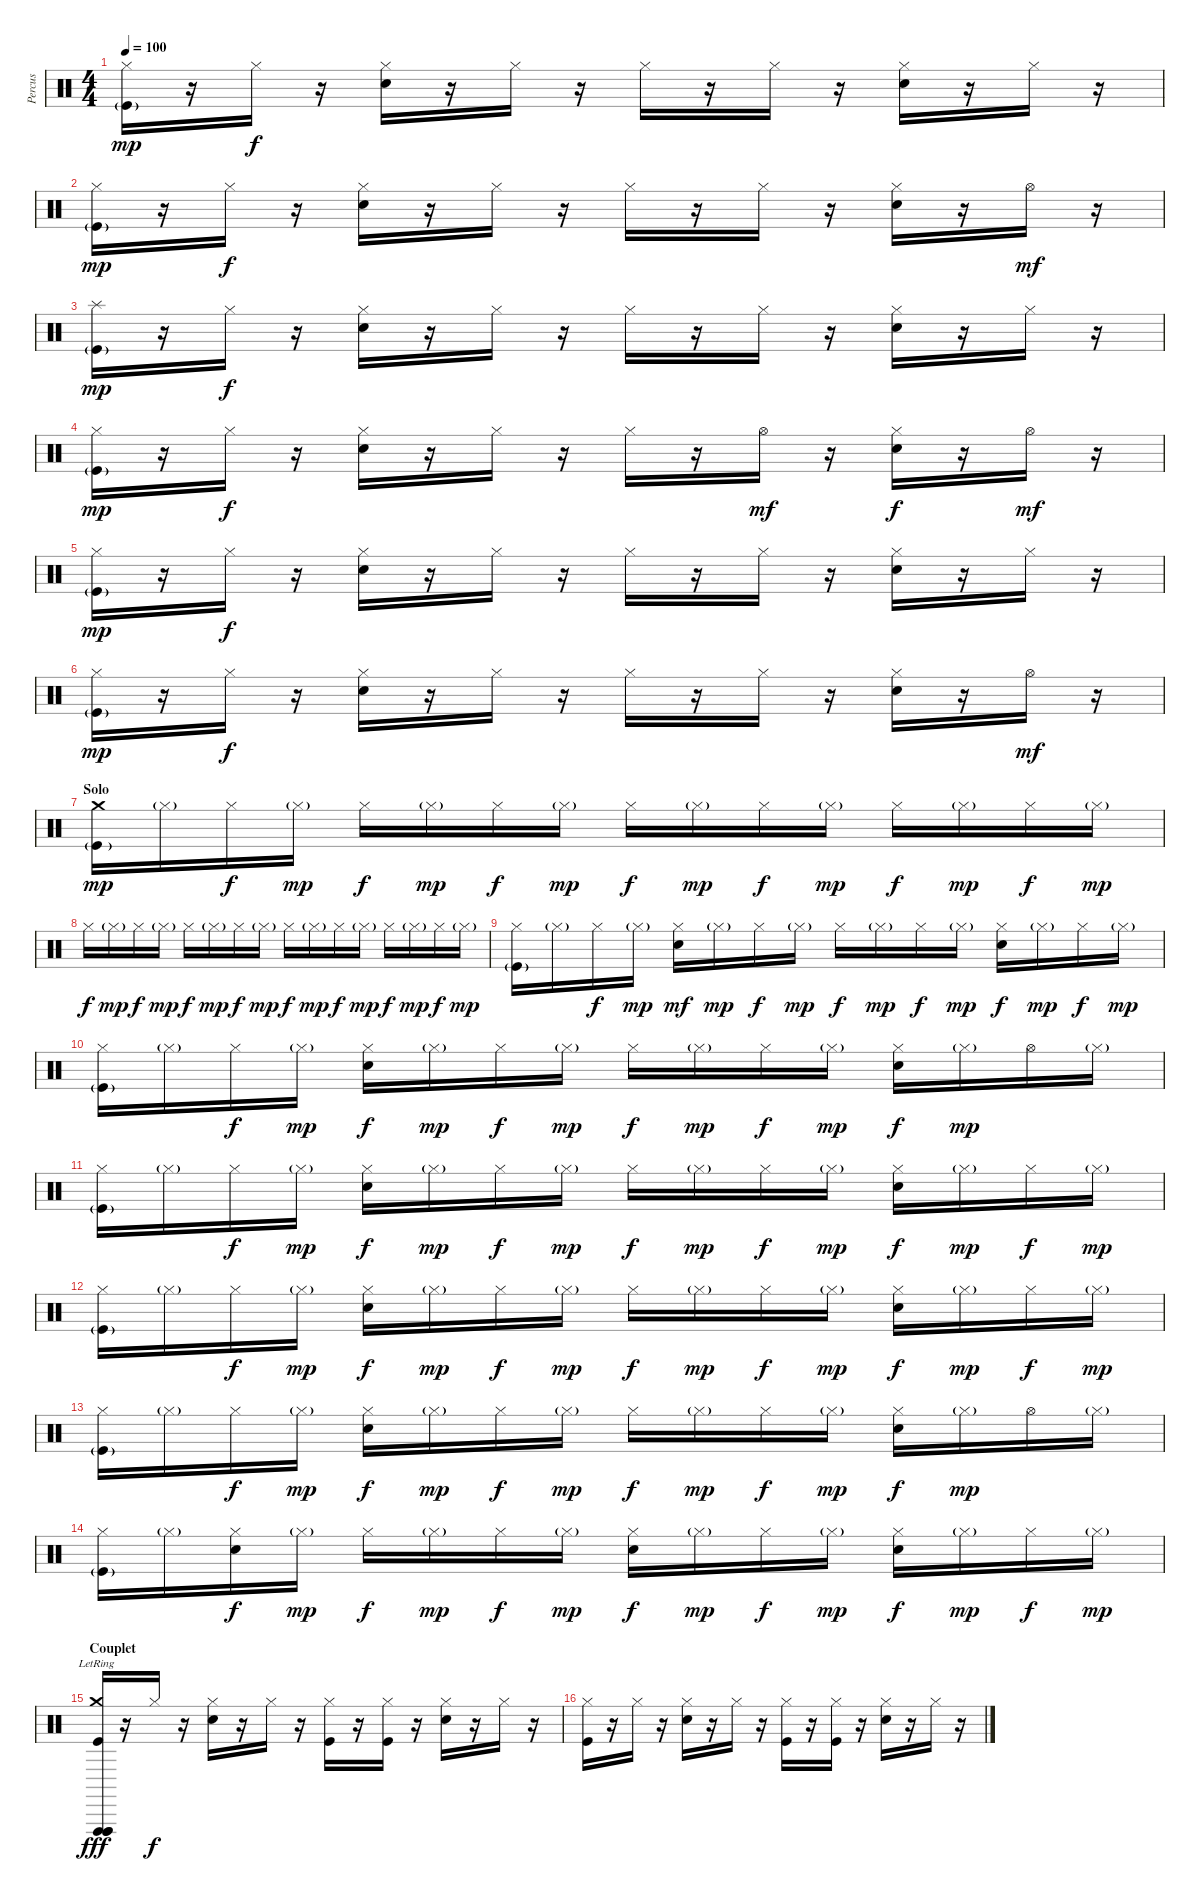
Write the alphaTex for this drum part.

\track ("Percus" "Percus") {instrument percussion}
\staff {score}
\articulation defaults
\ts (4 4)
\tempo 100
\clef neutral
\ks c
("Hi-Hat (closed)" "Kick (hit)"{g}).16{dy mp} r.16 "Hi-Hat (closed)".16{dy f} r.16 ("Hi-Hat (closed)" "Electric Snare (hit)").16 r.16 "Hi-Hat (closed)".16 r.16 "Hi-Hat (closed)".16 r.16 "Hi-Hat (closed)".16 r.16 ("Hi-Hat (closed)" "Electric Snare (hit)").16 r.16 "Hi-Hat (closed)".16 r.16 |
("Hi-Hat (closed)" "Kick (hit)"{g}).16{dy mp} r.16 "Hi-Hat (closed)".16{dy f} r.16 ("Hi-Hat (closed)" "Electric Snare (hit)").16 r.16 "Hi-Hat (closed)".16 r.16 "Hi-Hat (closed)".16 r.16 "Hi-Hat (closed)".16 r.16 ("Hi-Hat (closed)" "Electric Snare (hit)").16 r.16 "Hi-Hat (open)".16{dy mf} r.16 |
("Splash (hit)" "Kick (hit)"{g}).16{dy mp} r.16 "Hi-Hat (closed)".16{dy f} r.16 ("Hi-Hat (closed)" "Electric Snare (hit)").16 r.16 "Hi-Hat (closed)".16 r.16 "Hi-Hat (closed)".16 r.16 "Hi-Hat (closed)".16 r.16 ("Hi-Hat (closed)" "Electric Snare (hit)").16 r.16 "Hi-Hat (closed)".16 r.16 |
("Hi-Hat (closed)" "Kick (hit)"{g}).16{dy mp} r.16 "Hi-Hat (closed)".16{dy f} r.16 ("Hi-Hat (closed)" "Electric Snare (hit)").16 r.16 "Hi-Hat (closed)".16 r.16 "Hi-Hat (closed)".16 r.16 "Hi-Hat (open)".16{dy mf} r.16 ("Hi-Hat (closed)" "Electric Snare (hit)").16{dy f} r.16 "Hi-Hat (open)".16{dy mf} r.16 |
("Hi-Hat (closed)" "Kick (hit)"{g}).16{dy mp} r.16 "Hi-Hat (closed)".16{dy f} r.16 ("Hi-Hat (closed)" "Electric Snare (hit)").16 r.16 "Hi-Hat (closed)".16 r.16 "Hi-Hat (closed)".16 r.16 "Hi-Hat (closed)".16 r.16 ("Hi-Hat (closed)" "Electric Snare (hit)").16 r.16 "Hi-Hat (closed)".16 r.16 |
("Hi-Hat (closed)" "Kick (hit)"{g}).16{dy mp} r.16 "Hi-Hat (closed)".16{dy f} r.16 ("Hi-Hat (closed)" "Electric Snare (hit)").16 r.16 "Hi-Hat (closed)".16 r.16 "Hi-Hat (closed)".16 r.16 "Hi-Hat (closed)".16 r.16 ("Hi-Hat (closed)" "Electric Snare (hit)").16 r.16 "Hi-Hat (open)".16{dy mf} r.16 |
\section ("" "Solo")
("Crash medium (hit)" "Kick (hit)"{g}).16{dy mp} "Hi-Hat (closed)"{g}.16 "Hi-Hat (closed)".16{dy f} "Hi-Hat (closed)"{g}.16{dy mp} "Hi-Hat (closed)".16{dy f} "Hi-Hat (closed)"{g}.16{dy mp} "Hi-Hat (closed)".16{dy f} "Hi-Hat (closed)"{g}.16{dy mp} "Hi-Hat (closed)".16{dy f} "Hi-Hat (closed)"{g}.16{dy mp} "Hi-Hat (closed)".16{dy f} "Hi-Hat (closed)"{g}.16{dy mp} "Hi-Hat (closed)".16{dy f} "Hi-Hat (closed)"{g}.16{dy mp} "Hi-Hat (closed)".16{dy f} "Hi-Hat (closed)"{g}.16{dy mp} |
"Hi-Hat (closed)".16{dy f} "Hi-Hat (closed)"{g}.16{dy mp} "Hi-Hat (closed)".16{dy f} "Hi-Hat (closed)"{g}.16{dy mp} "Hi-Hat (closed)".16{dy f} "Hi-Hat (closed)"{g}.16{dy mp} "Hi-Hat (closed)".16{dy f} "Hi-Hat (closed)"{g}.16{dy mp} "Hi-Hat (closed)".16{dy f} "Hi-Hat (closed)"{g}.16{dy mp} "Hi-Hat (closed)".16{dy f} "Hi-Hat (closed)"{g}.16{dy mp} "Hi-Hat (closed)".16{dy f} "Hi-Hat (closed)"{g}.16{dy mp} "Hi-Hat (closed)".16{dy f} "Hi-Hat (closed)"{g}.16{dy mp} |
("Hi-Hat (closed)" "Kick (hit)"{g}).16 "Hi-Hat (closed)"{g}.16 "Hi-Hat (closed)".16{dy f} "Hi-Hat (closed)"{g}.16{dy mp} ("Hi-Hat (closed)" "Electric Snare (hit)").16{dy mf} "Hi-Hat (closed)"{g}.16{dy mp} "Hi-Hat (closed)".16{dy f} "Hi-Hat (closed)"{g}.16{dy mp} "Hi-Hat (closed)".16{dy f} "Hi-Hat (closed)"{g}.16{dy mp} "Hi-Hat (closed)".16{dy f} "Hi-Hat (closed)"{g}.16{dy mp} ("Hi-Hat (closed)" "Electric Snare (hit)").16{dy f} "Hi-Hat (closed)"{g}.16{dy mp} "Hi-Hat (closed)".16{dy f} "Hi-Hat (closed)"{g}.16{dy mp} |
("Hi-Hat (closed)" "Kick (hit)"{g}).16 "Hi-Hat (closed)"{g}.16 "Hi-Hat (closed)".16{dy f} "Hi-Hat (closed)"{g}.16{dy mp} ("Hi-Hat (closed)" "Electric Snare (hit)").16{dy f} "Hi-Hat (closed)"{g}.16{dy mp} "Hi-Hat (closed)".16{dy f} "Hi-Hat (closed)"{g}.16{dy mp} "Hi-Hat (closed)".16{dy f} "Hi-Hat (closed)"{g}.16{dy mp} "Hi-Hat (closed)".16{dy f} "Hi-Hat (closed)"{g}.16{dy mp} ("Hi-Hat (closed)" "Electric Snare (hit)").16{dy f} "Hi-Hat (closed)"{g}.16{dy mp} "Hi-Hat (open)".16 "Hi-Hat (closed)"{g}.16 |
("Hi-Hat (closed)" "Kick (hit)"{g}).16 "Hi-Hat (closed)"{g}.16 "Hi-Hat (closed)".16{dy f} "Hi-Hat (closed)"{g}.16{dy mp} ("Hi-Hat (closed)" "Electric Snare (hit)").16{dy f} "Hi-Hat (closed)"{g}.16{dy mp} "Hi-Hat (closed)".16{dy f} "Hi-Hat (closed)"{g}.16{dy mp} "Hi-Hat (closed)".16{dy f} "Hi-Hat (closed)"{g}.16{dy mp} "Hi-Hat (closed)".16{dy f} "Hi-Hat (closed)"{g}.16{dy mp} ("Hi-Hat (closed)" "Electric Snare (hit)").16{dy f} "Hi-Hat (closed)"{g}.16{dy mp} "Hi-Hat (closed)".16{dy f} "Hi-Hat (closed)"{g}.16{dy mp} |
("Hi-Hat (closed)" "Kick (hit)"{g}).16 "Hi-Hat (closed)"{g}.16 "Hi-Hat (closed)".16{dy f} "Hi-Hat (closed)"{g}.16{dy mp} ("Hi-Hat (closed)" "Electric Snare (hit)").16{dy f} "Hi-Hat (closed)"{g}.16{dy mp} "Hi-Hat (closed)".16{dy f} "Hi-Hat (closed)"{g}.16{dy mp} "Hi-Hat (closed)".16{dy f} "Hi-Hat (closed)"{g}.16{dy mp} "Hi-Hat (closed)".16{dy f} "Hi-Hat (closed)"{g}.16{dy mp} ("Hi-Hat (closed)" "Electric Snare (hit)").16{dy f} "Hi-Hat (closed)"{g}.16{dy mp} "Hi-Hat (closed)".16{dy f} "Hi-Hat (closed)"{g}.16{dy mp} |
("Hi-Hat (closed)" "Kick (hit)"{g}).16 "Hi-Hat (closed)"{g}.16 "Hi-Hat (closed)".16{dy f} "Hi-Hat (closed)"{g}.16{dy mp} ("Hi-Hat (closed)" "Electric Snare (hit)").16{dy f} "Hi-Hat (closed)"{g}.16{dy mp} "Hi-Hat (closed)".16{dy f} "Hi-Hat (closed)"{g}.16{dy mp} "Hi-Hat (closed)".16{dy f} "Hi-Hat (closed)"{g}.16{dy mp} "Hi-Hat (closed)".16{dy f} "Hi-Hat (closed)"{g}.16{dy mp} ("Hi-Hat (closed)" "Electric Snare (hit)").16{dy f} "Hi-Hat (closed)"{g}.16{dy mp} "Hi-Hat (open)".16 "Hi-Hat (closed)"{g}.16 |
("Hi-Hat (closed)" "Kick (hit)"{g}).16 "Hi-Hat (closed)"{g}.16 ("Hi-Hat (closed)" "Electric Snare (hit)").16{dy f} "Hi-Hat (closed)"{g}.16{dy mp} "Hi-Hat (closed)".16{dy f} "Hi-Hat (closed)"{g}.16{dy mp} "Hi-Hat (closed)".16{dy f} "Hi-Hat (closed)"{g}.16{dy mp} ("Hi-Hat (closed)" "Electric Snare (hit)").16{dy f} "Hi-Hat (closed)"{g}.16{dy mp} "Hi-Hat (closed)".16{dy f} "Hi-Hat (closed)"{g}.16{dy mp} ("Hi-Hat (closed)" "Electric Snare (hit)").16{dy f} "Hi-Hat (closed)"{g}.16{dy mp} "Hi-Hat (closed)".16{dy f} "Hi-Hat (closed)"{g}.16{dy mp} |
\section ("" "Couplet")
("Crash medium (hit)" "Vibraslap (hit)"{lr} "Vibraslap (hit)"{lr} "Vibraslap (hit)"{lr} "Kick (hit)").16{dy fff} r.16 "Hi-Hat (closed)".16{dy f} r.16 ("Hi-Hat (closed)" "Snare (hit) 2").16 r.16 "Hi-Hat (closed)".16 r.16 ("Hi-Hat (closed)" "Kick (hit)").16 r.16 ("Hi-Hat (closed)" "Kick (hit)").16 r.16 ("Hi-Hat (closed)" "Snare (hit) 2").16 r.16 "Hi-Hat (closed)".16 r.16 |
("Hi-Hat (closed)" "Kick (hit)").16 r.16 "Hi-Hat (closed)".16 r.16 ("Hi-Hat (closed)" "Snare (hit) 2").16 r.16 "Hi-Hat (closed)".16 r.16 ("Hi-Hat (closed)" "Kick (hit)").16 r.16 ("Hi-Hat (closed)" "Kick (hit)").16 r.16 ("Hi-Hat (closed)" "Snare (hit) 2").16 r.16 "Hi-Hat (closed)".16 r.16
